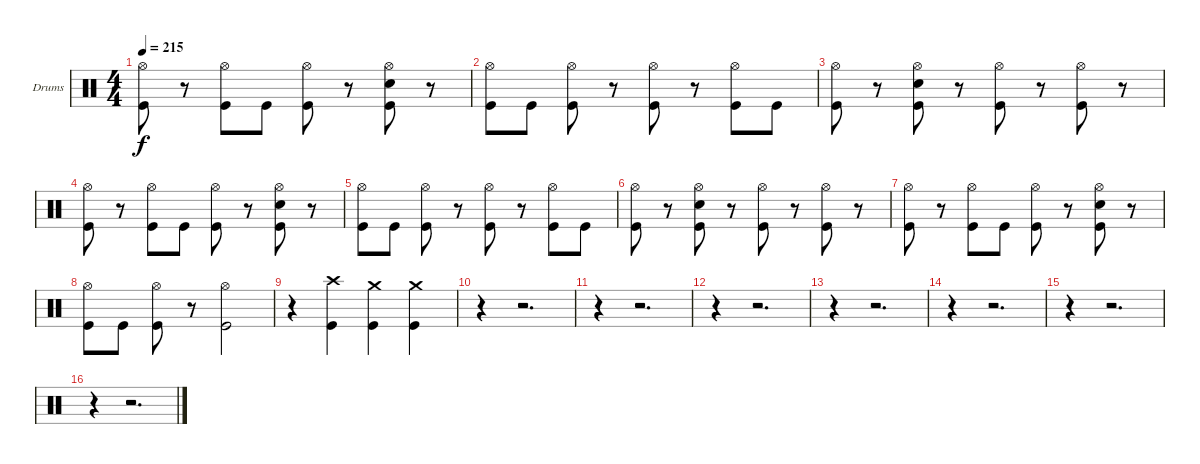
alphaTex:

\bracketExtendMode groupsimilarinstruments
\firstSystemTrackNameOrientation horizontal
\otherSystemsTrackNameOrientation horizontal
\track ("Drumkit (Christoph)" "Drums") {instrument percussion}
\staff {score}
\articulation defaults
\ts (4 4)
\tempo 215
\clef neutral
\ks c
("Hi-Hat (open)" "Kick (hit)").8{dy f} r.8 ("Hi-Hat (open)" "Kick (hit)").8 "Kick (hit)".8 ("Hi-Hat (open)" "Kick (hit)").8 r.8 ("Hi-Hat (open)" "Snare (hit) 2" "Kick (hit)").8 r.8 |
("Hi-Hat (open)" "Kick (hit)").8 "Kick (hit)".8 ("Hi-Hat (open)" "Kick (hit)").8 r.8 ("Hi-Hat (open)" "Kick (hit)").8 r.8 ("Hi-Hat (open)" "Kick (hit)").8 "Kick (hit)".8 |
("Hi-Hat (open)" "Kick (hit)").8 r.8 ("Hi-Hat (open)" "Snare (hit) 2" "Kick (hit)").8 r.8 ("Hi-Hat (open)" "Kick (hit)").8 r.8 ("Hi-Hat (open)" "Kick (hit)").8 r.8 |
("Hi-Hat (open)" "Kick (hit)").8 r.8 ("Hi-Hat (open)" "Kick (hit)").8 "Kick (hit)".8 ("Hi-Hat (open)" "Kick (hit)").8 r.8 ("Hi-Hat (open)" "Snare (hit) 2" "Kick (hit)").8 r.8 |
("Hi-Hat (open)" "Kick (hit)").8 "Kick (hit)".8 ("Hi-Hat (open)" "Kick (hit)").8 r.8 ("Hi-Hat (open)" "Kick (hit)").8 r.8 ("Hi-Hat (open)" "Kick (hit)").8 "Kick (hit)".8 |
("Hi-Hat (open)" "Kick (hit)").8 r.8 ("Hi-Hat (open)" "Snare (hit) 2" "Kick (hit)").8 r.8 ("Hi-Hat (open)" "Kick (hit)").8 r.8 ("Hi-Hat (open)" "Kick (hit)").8 r.8 |
("Hi-Hat (open)" "Kick (hit)").8 r.8 ("Hi-Hat (open)" "Kick (hit)").8 "Kick (hit)".8 ("Hi-Hat (open)" "Kick (hit)").8 r.8 ("Hi-Hat (open)" "Snare (hit) 2" "Kick (hit)").8 r.8 |
("Hi-Hat (open)" "Kick (hit)").8 "Kick (hit)".8 ("Hi-Hat (open)" "Kick (hit)").8 r.8 ("Hi-Hat (open)" "Kick (hit)").2 |
r.4 ("Crash high (hit)" "Kick (hit)").4 ("Crash medium (hit)" "Kick (hit)").4 ("Crash medium (hit)" "Kick (hit)").4 |
r.4 r.2{d} |
r.4 r.2{d} |
r.4 r.2{d} |
r.4 r.2{d} |
r.4 r.2{d} |
r.4 r.2{d} |
r.4 r.2{d}
